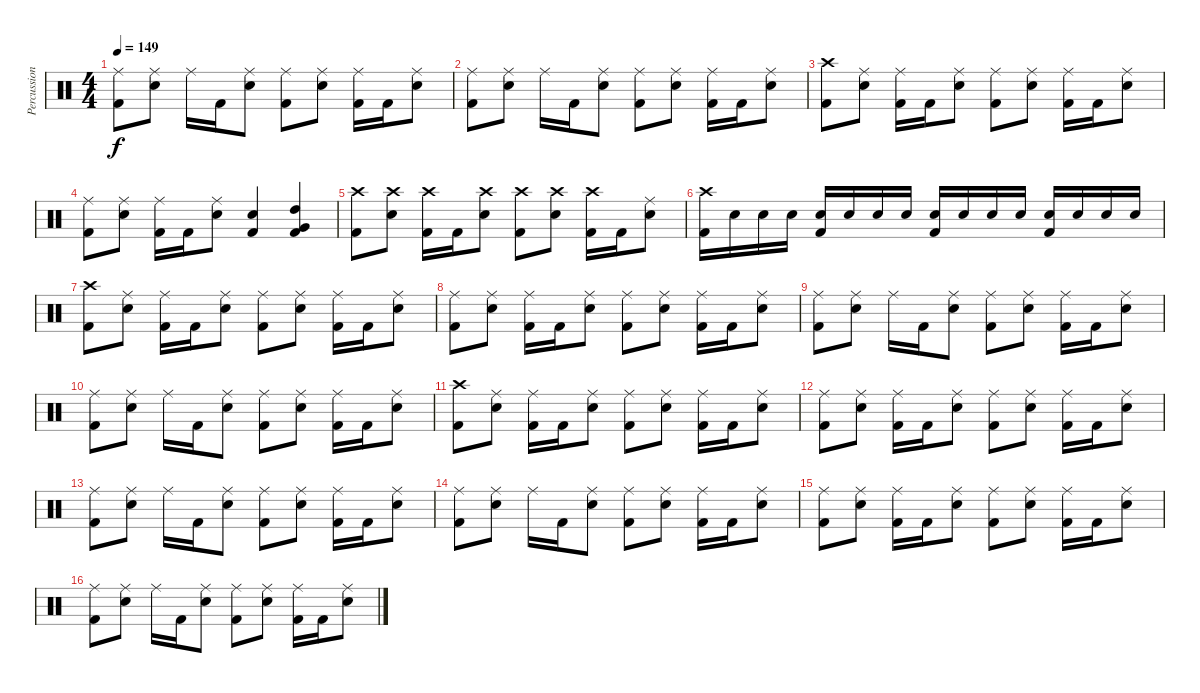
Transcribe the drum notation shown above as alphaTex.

\track ("Percussion" "Percussion") {instrument percussion}
\staff {score}
\articulation defaults
\ts (4 4)
\tempo 149
\clef neutral
\ks c
("Ride (middle)" "Kick (hit) 2").8{dy f} ("Ride (middle)" "Snare (hit) 2").8 "Ride (middle)".16 "Kick (hit) 2".16 ("Ride (middle)" "Snare (hit) 2").8 ("Ride (middle)" "Kick (hit) 2").8 ("Ride (middle)" "Snare (hit) 2").8 ("Ride (middle)" "Kick (hit) 2").16 "Kick (hit) 2".16 ("Ride (middle)" "Snare (hit) 2").8 |
("Ride (middle)" "Kick (hit) 2").8 ("Ride (middle)" "Snare (hit) 2").8 "Ride (middle)".16 "Kick (hit) 2".16 ("Ride (middle)" "Snare (hit) 2").8 ("Ride (middle)" "Kick (hit) 2").8 ("Ride (middle)" "Snare (hit) 2").8 ("Ride (middle)" "Kick (hit) 2").16 "Kick (hit) 2".16 ("Ride (middle)" "Snare (hit) 2").8 |
("Crash high (hit)" "Kick (hit) 2").8 ("Ride (middle)" "Snare (hit) 2").8 ("Ride (middle)" "Kick (hit) 2").16 "Kick (hit) 2".16 ("Ride (middle)" "Snare (hit) 2").8 ("Ride (middle)" "Kick (hit) 2").8 ("Ride (middle)" "Snare (hit) 2").8 ("Ride (middle)" "Kick (hit) 2").16 "Kick (hit) 2".16 ("Ride (middle)" "Snare (hit) 2").8 |
("Ride (middle)" "Kick (hit) 2").8 ("Ride (middle)" "Snare (hit) 2").8 ("Ride (middle)" "Kick (hit) 2").16 "Kick (hit) 2".16 ("Ride (middle)" "Snare (hit) 2").8 ("Snare (hit) 2" "Kick (hit) 2").4 ("High Tom (hit)" "Very Low Tom (hit)" "Kick (hit) 2").4 |
("Crash high (hit)" "Kick (hit) 2").8 ("Crash high (hit)" "Snare (hit) 2").8 ("Crash high (hit)" "Kick (hit) 2").16 "Kick (hit) 2".16 ("Crash high (hit)" "Snare (hit) 2").8 ("Crash high (hit)" "Kick (hit) 2").8 ("Crash high (hit)" "Snare (hit) 2").8 ("Crash high (hit)" "Kick (hit) 2").16 "Kick (hit) 2".16 ("Ride (middle)" "Snare (hit) 2").8 |
("Crash high (hit)" "Kick (hit) 2").16 "Snare (hit) 2".16 "Snare (hit) 2".16 "Snare (hit) 2".16 ("Snare (hit) 2" "Kick (hit) 2").16 "Snare (hit) 2".16 "Snare (hit) 2".16 "Snare (hit) 2".16 ("Snare (hit) 2" "Kick (hit) 2").16 "Snare (hit) 2".16 "Snare (hit) 2".16 "Snare (hit) 2".16 ("Snare (hit) 2" "Kick (hit) 2").16 "Snare (hit) 2".16 "Snare (hit) 2".16 "Snare (hit) 2".16 |
("Crash high (hit)" "Kick (hit) 2").8 ("Ride (middle)" "Snare (hit) 2").8 ("Ride (middle)" "Kick (hit) 2").16 "Kick (hit) 2".16 ("Ride (middle)" "Snare (hit) 2").8 ("Ride (middle)" "Kick (hit) 2").8 ("Ride (middle)" "Snare (hit) 2").8 ("Ride (middle)" "Kick (hit) 2").16 "Kick (hit) 2".16 ("Ride (middle)" "Snare (hit) 2").8 |
("Ride (middle)" "Kick (hit) 2").8 ("Ride (middle)" "Snare (hit) 2").8 ("Ride (middle)" "Kick (hit) 2").16 "Kick (hit) 2".16 ("Ride (middle)" "Snare (hit) 2").8 ("Ride (middle)" "Kick (hit) 2").8 ("Ride (middle)" "Snare (hit) 2").8 ("Ride (middle)" "Kick (hit) 2").16 "Kick (hit) 2".16 ("Ride (middle)" "Snare (hit) 2").8 |
("Ride (middle)" "Kick (hit) 2").8 ("Ride (middle)" "Snare (hit) 2").8 "Ride (middle)".16 "Kick (hit) 2".16 ("Ride (middle)" "Snare (hit) 2").8 ("Ride (middle)" "Kick (hit) 2").8 ("Ride (middle)" "Snare (hit) 2").8 ("Ride (middle)" "Kick (hit) 2").16 "Kick (hit) 2".16 ("Ride (middle)" "Snare (hit) 2").8 |
("Ride (middle)" "Kick (hit) 2").8 ("Ride (middle)" "Snare (hit) 2").8 "Ride (middle)".16 "Kick (hit) 2".16 ("Ride (middle)" "Snare (hit) 2").8 ("Ride (middle)" "Kick (hit) 2").8 ("Ride (middle)" "Snare (hit) 2").8 ("Ride (middle)" "Kick (hit) 2").16 "Kick (hit) 2".16 ("Ride (middle)" "Snare (hit) 2").8 |
("Crash high (hit)" "Kick (hit) 2").8 ("Ride (middle)" "Snare (hit) 2").8 ("Ride (middle)" "Kick (hit) 2").16 "Kick (hit) 2".16 ("Ride (middle)" "Snare (hit) 2").8 ("Ride (middle)" "Kick (hit) 2").8 ("Ride (middle)" "Snare (hit) 2").8 ("Ride (middle)" "Kick (hit) 2").16 "Kick (hit) 2".16 ("Ride (middle)" "Snare (hit) 2").8 |
("Ride (middle)" "Kick (hit) 2").8 ("Ride (middle)" "Snare (hit) 2").8 ("Ride (middle)" "Kick (hit) 2").16 "Kick (hit) 2".16 ("Ride (middle)" "Snare (hit) 2").8 ("Ride (middle)" "Kick (hit) 2").8 ("Ride (middle)" "Snare (hit) 2").8 ("Ride (middle)" "Kick (hit) 2").16 "Kick (hit) 2".16 ("Ride (middle)" "Snare (hit) 2").8 |
("Ride (middle)" "Kick (hit) 2").8 ("Ride (middle)" "Snare (hit) 2").8 "Ride (middle)".16 "Kick (hit) 2".16 ("Ride (middle)" "Snare (hit) 2").8 ("Ride (middle)" "Kick (hit) 2").8 ("Ride (middle)" "Snare (hit) 2").8 ("Ride (middle)" "Kick (hit) 2").16 "Kick (hit) 2".16 ("Ride (middle)" "Snare (hit) 2").8 |
("Ride (middle)" "Kick (hit) 2").8 ("Ride (middle)" "Snare (hit) 2").8 "Ride (middle)".16 "Kick (hit) 2".16 ("Ride (middle)" "Snare (hit) 2").8 ("Ride (middle)" "Kick (hit) 2").8 ("Ride (middle)" "Snare (hit) 2").8 ("Ride (middle)" "Kick (hit) 2").16 "Kick (hit) 2".16 ("Ride (middle)" "Snare (hit) 2").8 |
("Ride (middle)" "Kick (hit) 2").8 ("Ride (middle)" "Snare (hit) 2").8 ("Ride (middle)" "Kick (hit) 2").16 "Kick (hit) 2".16 ("Ride (middle)" "Snare (hit) 2").8 ("Ride (middle)" "Kick (hit) 2").8 ("Ride (middle)" "Snare (hit) 2").8 ("Ride (middle)" "Kick (hit) 2").16 "Kick (hit) 2".16 ("Ride (middle)" "Snare (hit) 2").8 |
("Ride (middle)" "Kick (hit) 2").8 ("Ride (middle)" "Snare (hit) 2").8 "Ride (middle)".16 "Kick (hit) 2".16 ("Ride (middle)" "Snare (hit) 2").8 ("Ride (middle)" "Kick (hit) 2").8 ("Ride (middle)" "Snare (hit) 2").8 ("Ride (middle)" "Kick (hit) 2").16 "Kick (hit) 2".16 ("Ride (middle)" "Snare (hit) 2").8
